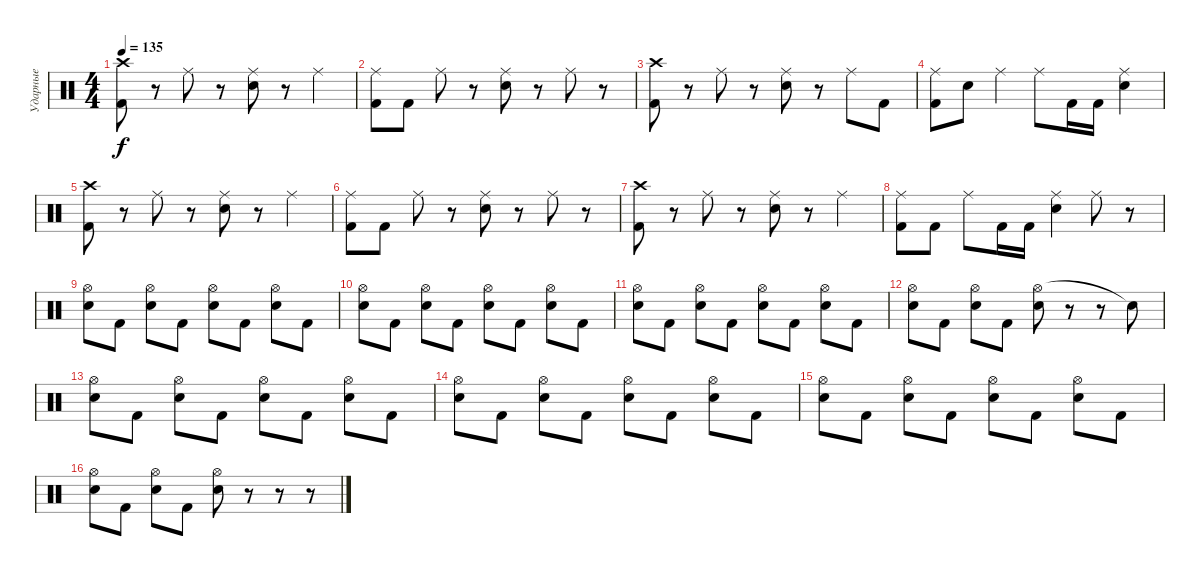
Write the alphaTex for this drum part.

\track ("Ударные" "Ударные") {instrument percussion}
\staff {score}
\articulation defaults
\ts (4 4)
\tempo 135
\clef neutral
\ks c
("Crash high (hit)" "Kick (hit) 2").8{dy f} r.8 "Ride (middle)".8 r.8 ("Ride (middle)" "Electric Snare (hit)").8 r.8 "Ride (middle)".4 |
("Ride (middle)" "Kick (hit) 2").8 "Kick (hit) 2".8 "Ride (middle)".8 r.8 ("Ride (middle)" "Electric Snare (hit)").8 r.8 "Ride (middle)".8 r.8 |
("Crash high (hit)" "Kick (hit) 2").8 r.8 "Ride (middle)".8 r.8 ("Ride (middle)" "Electric Snare (hit)").8 r.8 "Ride (middle)".8 "Kick (hit) 2".8 |
("Ride (middle)" "Kick (hit) 2").8 "Electric Snare (hit)".8 "Ride (middle)".4 "Ride (middle)".8 "Kick (hit) 2".16 "Kick (hit) 2".16 ("Ride (middle)" "Electric Snare (hit)").4 |
("Crash high (hit)" "Kick (hit) 2").8 r.8 "Ride (middle)".8 r.8 ("Ride (middle)" "Electric Snare (hit)").8 r.8 "Ride (middle)".4 |
("Ride (middle)" "Kick (hit) 2").8 "Kick (hit) 2".8 "Ride (middle)".8 r.8 ("Ride (middle)" "Electric Snare (hit)").8 r.8 "Ride (middle)".8 r.8 |
("Crash high (hit)" "Kick (hit) 2").8 r.8 "Ride (middle)".8 r.8 ("Ride (middle)" "Electric Snare (hit)").8 r.8 "Ride (middle)".4 |
("Ride (middle)" "Kick (hit) 2").8 "Kick (hit) 2".8 "Ride (middle)".8 "Kick (hit) 2".16 "Kick (hit) 2".16 ("Ride (middle)" "Electric Snare (hit)").4 "Ride (middle)".8 r.8 |
("Hi-Hat (open)" "Electric Snare (hit)").8 "Kick (hit) 2".8 ("Hi-Hat (open)" "Electric Snare (hit)").8 "Kick (hit) 2".8 ("Hi-Hat (open)" "Electric Snare (hit)").8 "Kick (hit) 2".8 ("Hi-Hat (open)" "Electric Snare (hit)").8 "Kick (hit) 2".8 |
("Hi-Hat (open)" "Electric Snare (hit)").8 "Kick (hit) 2".8 ("Hi-Hat (open)" "Electric Snare (hit)").8 "Kick (hit) 2".8 ("Hi-Hat (open)" "Electric Snare (hit)").8 "Kick (hit) 2".8 ("Hi-Hat (open)" "Electric Snare (hit)").8 "Kick (hit) 2".8 |
("Hi-Hat (open)" "Electric Snare (hit)").8 "Kick (hit) 2".8 ("Hi-Hat (open)" "Electric Snare (hit)").8 "Kick (hit) 2".8 ("Hi-Hat (open)" "Electric Snare (hit)").8 "Kick (hit) 2".8 ("Hi-Hat (open)" "Electric Snare (hit)").8 "Kick (hit) 2".8 |
("Hi-Hat (open)" "Electric Snare (hit)").8 "Kick (hit) 2".8 ("Hi-Hat (open)" "Electric Snare (hit)").8 "Kick (hit) 2".8 ("Hi-Hat (open)" "Electric Snare (hit)").8 r.8 r.8 "Snare (hit)"{t}.8 |
("Hi-Hat (open)" "Electric Snare (hit)").8 "Kick (hit) 2".8 ("Hi-Hat (open)" "Electric Snare (hit)").8 "Kick (hit) 2".8 ("Hi-Hat (open)" "Electric Snare (hit)").8 "Kick (hit) 2".8 ("Hi-Hat (open)" "Electric Snare (hit)").8 "Kick (hit) 2".8 |
("Hi-Hat (open)" "Electric Snare (hit)").8 "Kick (hit) 2".8 ("Hi-Hat (open)" "Electric Snare (hit)").8 "Kick (hit) 2".8 ("Hi-Hat (open)" "Electric Snare (hit)").8 "Kick (hit) 2".8 ("Hi-Hat (open)" "Electric Snare (hit)").8 "Kick (hit) 2".8 |
("Hi-Hat (open)" "Electric Snare (hit)").8 "Kick (hit) 2".8 ("Hi-Hat (open)" "Electric Snare (hit)").8 "Kick (hit) 2".8 ("Hi-Hat (open)" "Electric Snare (hit)").8 "Kick (hit) 2".8 ("Hi-Hat (open)" "Electric Snare (hit)").8 "Kick (hit) 2".8 |
("Hi-Hat (open)" "Electric Snare (hit)").8 "Kick (hit) 2".8 ("Hi-Hat (open)" "Electric Snare (hit)").8 "Kick (hit) 2".8 ("Hi-Hat (open)" "Electric Snare (hit)").8 r.8 r.8 r.8
